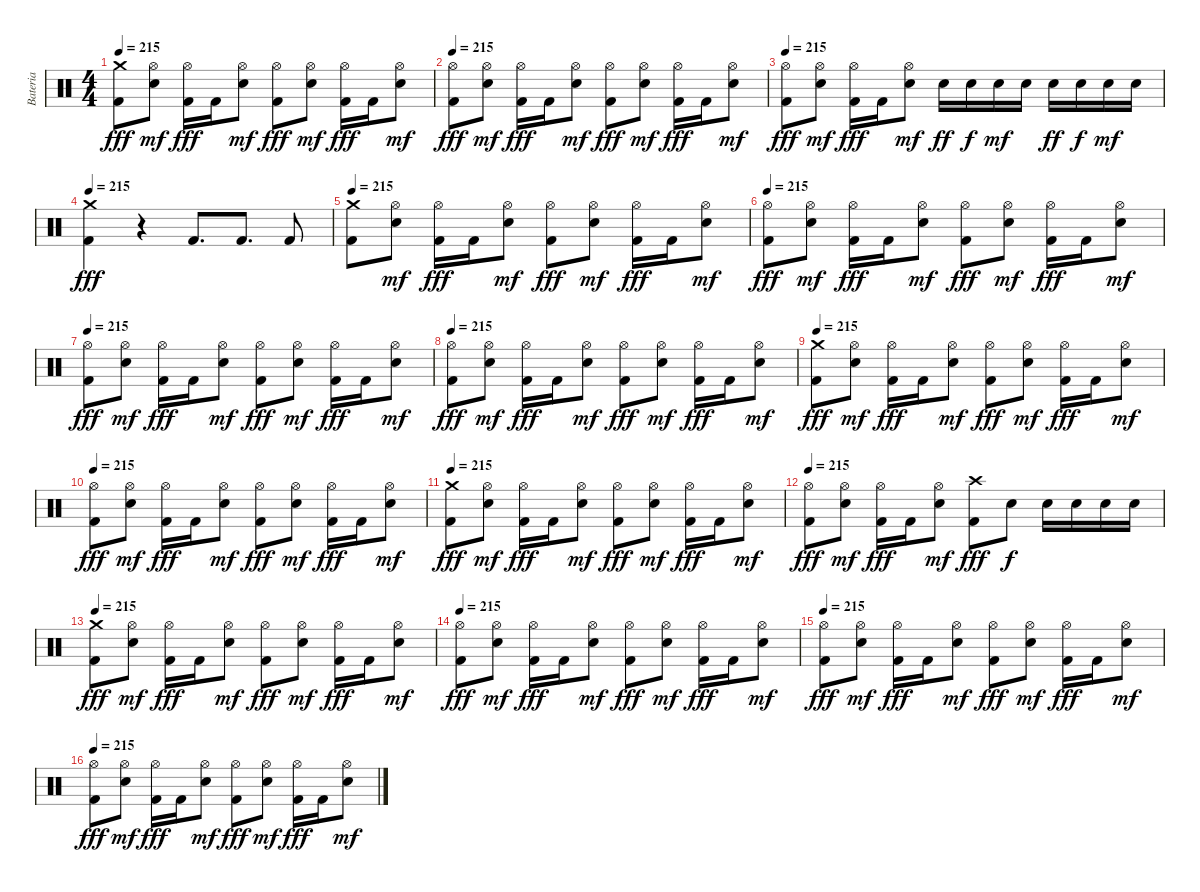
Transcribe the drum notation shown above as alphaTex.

\track ("Bateria" "Bateria") {instrument percussion}
\staff {score}
\articulation defaults
\ts (4 4)
\tempo 215
\clef neutral
\ks c
("Crash medium (hit)" "Kick (hit) 2").8{dy fff} ("Hi-Hat (open)" "Electric Snare (hit)").8{dy mf} ("Hi-Hat (open)" "Kick (hit) 2").16{dy fff} "Kick (hit) 2".16 ("Hi-Hat (open)" "Electric Snare (hit)").8{dy mf} ("Hi-Hat (open)" "Kick (hit) 2").8{dy fff} ("Hi-Hat (open)" "Electric Snare (hit)").8{dy mf} ("Hi-Hat (open)" "Kick (hit) 2").16{dy fff} "Kick (hit) 2".16 ("Hi-Hat (open)" "Electric Snare (hit)").8{dy mf} |
\tempo 215
("Hi-Hat (open)" "Kick (hit) 2").8{dy fff} ("Hi-Hat (open)" "Electric Snare (hit)").8{dy mf} ("Hi-Hat (open)" "Kick (hit) 2").16{dy fff} "Kick (hit) 2".16 ("Hi-Hat (open)" "Electric Snare (hit)").8{dy mf} ("Hi-Hat (open)" "Kick (hit) 2").8{dy fff} ("Hi-Hat (open)" "Electric Snare (hit)").8{dy mf} ("Hi-Hat (open)" "Kick (hit) 2").16{dy fff} "Kick (hit) 2".16 ("Hi-Hat (open)" "Electric Snare (hit)").8{dy mf} |
\tempo 215
("Hi-Hat (open)" "Kick (hit) 2").8{dy fff} ("Hi-Hat (open)" "Electric Snare (hit)").8{dy mf} ("Hi-Hat (open)" "Kick (hit) 2").16{dy fff} "Kick (hit) 2".16 ("Hi-Hat (open)" "Electric Snare (hit)").8{dy mf} "Electric Snare (hit)".16{dy ff} "Electric Snare (hit)".16{dy f} "Electric Snare (hit)".16{dy mf} "Electric Snare (hit)".16 "Electric Snare (hit)".16{dy ff} "Electric Snare (hit)".16{dy f} "Electric Snare (hit)".16{dy mf} "Electric Snare (hit)".16 |
\tempo 215
("Crash medium (hit)" "Kick (hit) 2").4{dy fff} r.4 "Kick (hit) 2".8{d} "Kick (hit) 2".8{d} "Kick (hit) 2".8 |
\tempo 215
("Crash medium (hit)" "Kick (hit) 2").8 ("Hi-Hat (open)" "Electric Snare (hit)").8{dy mf} ("Hi-Hat (open)" "Kick (hit) 2").16{dy fff} "Kick (hit) 2".16 ("Hi-Hat (open)" "Electric Snare (hit)").8{dy mf} ("Hi-Hat (open)" "Kick (hit) 2").8{dy fff} ("Hi-Hat (open)" "Electric Snare (hit)").8{dy mf} ("Hi-Hat (open)" "Kick (hit) 2").16{dy fff} "Kick (hit) 2".16 ("Hi-Hat (open)" "Electric Snare (hit)").8{dy mf} |
\tempo 215
("Hi-Hat (open)" "Kick (hit) 2").8{dy fff} ("Hi-Hat (open)" "Electric Snare (hit)").8{dy mf} ("Hi-Hat (open)" "Kick (hit) 2").16{dy fff} "Kick (hit) 2".16 ("Hi-Hat (open)" "Electric Snare (hit)").8{dy mf} ("Hi-Hat (open)" "Kick (hit) 2").8{dy fff} ("Hi-Hat (open)" "Electric Snare (hit)").8{dy mf} ("Hi-Hat (open)" "Kick (hit) 2").16{dy fff} "Kick (hit) 2".16 ("Hi-Hat (open)" "Electric Snare (hit)").8{dy mf} |
\tempo 215
("Hi-Hat (open)" "Kick (hit) 2").8{dy fff} ("Hi-Hat (open)" "Electric Snare (hit)").8{dy mf} ("Hi-Hat (open)" "Kick (hit) 2").16{dy fff} "Kick (hit) 2".16 ("Hi-Hat (open)" "Electric Snare (hit)").8{dy mf} ("Hi-Hat (open)" "Kick (hit) 2").8{dy fff} ("Hi-Hat (open)" "Electric Snare (hit)").8{dy mf} ("Hi-Hat (open)" "Kick (hit) 2").16{dy fff} "Kick (hit) 2".16 ("Hi-Hat (open)" "Electric Snare (hit)").8{dy mf} |
\tempo 215
("Hi-Hat (open)" "Kick (hit) 2").8{dy fff} ("Hi-Hat (open)" "Electric Snare (hit)").8{dy mf} ("Hi-Hat (open)" "Kick (hit) 2").16{dy fff} "Kick (hit) 2".16 ("Hi-Hat (open)" "Electric Snare (hit)").8{dy mf} ("Hi-Hat (open)" "Kick (hit) 2").8{dy fff} ("Hi-Hat (open)" "Electric Snare (hit)").8{dy mf} ("Hi-Hat (open)" "Kick (hit) 2").16{dy fff} "Kick (hit) 2".16 ("Hi-Hat (open)" "Electric Snare (hit)").8{dy mf} |
\tempo 215
("Crash medium (hit)" "Kick (hit) 2").8{dy fff} ("Hi-Hat (open)" "Electric Snare (hit)").8{dy mf} ("Hi-Hat (open)" "Kick (hit) 2").16{dy fff} "Kick (hit) 2".16 ("Hi-Hat (open)" "Electric Snare (hit)").8{dy mf} ("Hi-Hat (open)" "Kick (hit) 2").8{dy fff} ("Hi-Hat (open)" "Electric Snare (hit)").8{dy mf} ("Hi-Hat (open)" "Kick (hit) 2").16{dy fff} "Kick (hit) 2".16 ("Hi-Hat (open)" "Electric Snare (hit)").8{dy mf} |
\tempo 215
("Hi-Hat (open)" "Kick (hit) 2").8{dy fff} ("Hi-Hat (open)" "Electric Snare (hit)").8{dy mf} ("Hi-Hat (open)" "Kick (hit) 2").16{dy fff} "Kick (hit) 2".16 ("Hi-Hat (open)" "Electric Snare (hit)").8{dy mf} ("Hi-Hat (open)" "Kick (hit) 2").8{dy fff} ("Hi-Hat (open)" "Electric Snare (hit)").8{dy mf} ("Hi-Hat (open)" "Kick (hit) 2").16{dy fff} "Kick (hit) 2".16 ("Hi-Hat (open)" "Electric Snare (hit)").8{dy mf} |
\tempo 215
("Crash medium (hit)" "Kick (hit) 2").8{dy fff} ("Hi-Hat (open)" "Electric Snare (hit)").8{dy mf} ("Hi-Hat (open)" "Kick (hit) 2").16{dy fff} "Kick (hit) 2".16 ("Hi-Hat (open)" "Electric Snare (hit)").8{dy mf} ("Hi-Hat (open)" "Kick (hit) 2").8{dy fff} ("Hi-Hat (open)" "Electric Snare (hit)").8{dy mf} ("Hi-Hat (open)" "Kick (hit) 2").16{dy fff} "Kick (hit) 2".16 ("Hi-Hat (open)" "Electric Snare (hit)").8{dy mf} |
\tempo 215
("Hi-Hat (open)" "Kick (hit) 2").8{dy fff} ("Hi-Hat (open)" "Electric Snare (hit)").8{dy mf} ("Hi-Hat (open)" "Kick (hit) 2").16{dy fff} "Kick (hit) 2".16 ("Hi-Hat (open)" "Electric Snare (hit)").8{dy mf} ("Crash high (hit)" "Kick (hit) 2").8{dy fff} "Electric Snare (hit)".8{dy f} "Electric Snare (hit)".16 "Electric Snare (hit)".16 "Electric Snare (hit)".16 "Electric Snare (hit)".16 |
\tempo 215
("Crash medium (hit)" "Kick (hit) 2").8{dy fff} ("Hi-Hat (open)" "Electric Snare (hit)").8{dy mf} ("Hi-Hat (open)" "Kick (hit) 2").16{dy fff} "Kick (hit) 2".16 ("Hi-Hat (open)" "Electric Snare (hit)").8{dy mf} ("Hi-Hat (open)" "Kick (hit) 2").8{dy fff} ("Hi-Hat (open)" "Electric Snare (hit)").8{dy mf} ("Hi-Hat (open)" "Kick (hit) 2").16{dy fff} "Kick (hit) 2".16 ("Hi-Hat (open)" "Electric Snare (hit)").8{dy mf} |
\tempo 215
("Hi-Hat (open)" "Kick (hit) 2").8{dy fff} ("Hi-Hat (open)" "Electric Snare (hit)").8{dy mf} ("Hi-Hat (open)" "Kick (hit) 2").16{dy fff} "Kick (hit) 2".16 ("Hi-Hat (open)" "Electric Snare (hit)").8{dy mf} ("Hi-Hat (open)" "Kick (hit) 2").8{dy fff} ("Hi-Hat (open)" "Electric Snare (hit)").8{dy mf} ("Hi-Hat (open)" "Kick (hit) 2").16{dy fff} "Kick (hit) 2".16 ("Hi-Hat (open)" "Electric Snare (hit)").8{dy mf} |
\tempo 215
("Hi-Hat (open)" "Kick (hit) 2").8{dy fff} ("Hi-Hat (open)" "Electric Snare (hit)").8{dy mf} ("Hi-Hat (open)" "Kick (hit) 2").16{dy fff} "Kick (hit) 2".16 ("Hi-Hat (open)" "Electric Snare (hit)").8{dy mf} ("Hi-Hat (open)" "Kick (hit) 2").8{dy fff} ("Hi-Hat (open)" "Electric Snare (hit)").8{dy mf} ("Hi-Hat (open)" "Kick (hit) 2").16{dy fff} "Kick (hit) 2".16 ("Hi-Hat (open)" "Electric Snare (hit)").8{dy mf} |
\tempo 215
("Hi-Hat (open)" "Kick (hit) 2").8{dy fff} ("Hi-Hat (open)" "Electric Snare (hit)").8{dy mf} ("Hi-Hat (open)" "Kick (hit) 2").16{dy fff} "Kick (hit) 2".16 ("Hi-Hat (open)" "Electric Snare (hit)").8{dy mf} ("Hi-Hat (open)" "Kick (hit) 2").8{dy fff} ("Hi-Hat (open)" "Electric Snare (hit)").8{dy mf} ("Hi-Hat (open)" "Kick (hit) 2").16{dy fff} "Kick (hit) 2".16 ("Hi-Hat (open)" "Electric Snare (hit)").8{dy mf}
